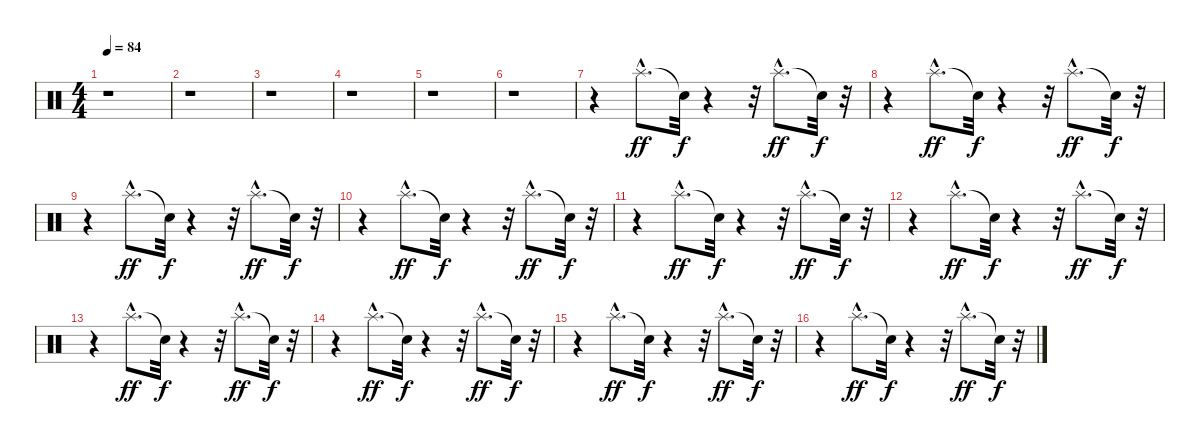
\track "" {instrument percussion}
\staff {score}
\articulation defaults
\ts (4 4)
\tempo 84
\clef neutral
\ks c
r.1{dy ff} |
r.1 |
r.1 |
r.1 |
r.1 |
r.1 |
r.4 "Splash (hit)"{hac}.8{d} "Snare (hit)"{t}.32{dy f} r.4 r.32 "Splash (hit)"{hac}.8{d dy ff} "Snare (hit)"{t}.32{dy f} r.32 |
r.4 "Splash (hit)"{hac}.8{d dy ff} "Snare (hit)"{t}.32{dy f} r.4 r.32 "Splash (hit)"{hac}.8{d dy ff} "Snare (hit)"{t}.32{dy f} r.32 |
r.4 "Splash (hit)"{hac}.8{d dy ff} "Snare (hit)"{t}.32{dy f} r.4 r.32 "Splash (hit)"{hac}.8{d dy ff} "Snare (hit)"{t}.32{dy f} r.32 |
r.4 "Splash (hit)"{hac}.8{d dy ff} "Snare (hit)"{t}.32{dy f} r.4 r.32 "Splash (hit)"{hac}.8{d dy ff} "Snare (hit)"{t}.32{dy f} r.32 |
r.4 "Splash (hit)"{hac}.8{d dy ff} "Snare (hit)"{t}.32{dy f} r.4 r.32 "Splash (hit)"{hac}.8{d dy ff} "Snare (hit)"{t}.32{dy f} r.32 |
r.4 "Splash (hit)"{hac}.8{d dy ff} "Snare (hit)"{t}.32{dy f} r.4 r.32 "Splash (hit)"{hac}.8{d dy ff} "Snare (hit)"{t}.32{dy f} r.32 |
r.4 "Splash (hit)"{hac}.8{d dy ff} "Snare (hit)"{t}.32{dy f} r.4 r.32 "Splash (hit)"{hac}.8{d dy ff} "Snare (hit)"{t}.32{dy f} r.32 |
r.4 "Splash (hit)"{hac}.8{d dy ff} "Snare (hit)"{t}.32{dy f} r.4 r.32 "Splash (hit)"{hac}.8{d dy ff} "Snare (hit)"{t}.32{dy f} r.32 |
r.4 "Splash (hit)"{hac}.8{d dy ff} "Snare (hit)"{t}.32{dy f} r.4 r.32 "Splash (hit)"{hac}.8{d dy ff} "Snare (hit)"{t}.32{dy f} r.32 |
r.4 "Splash (hit)"{hac}.8{d dy ff} "Snare (hit)"{t}.32{dy f} r.4 r.32 "Splash (hit)"{hac}.8{d dy ff} "Snare (hit)"{t}.32{dy f} r.32
